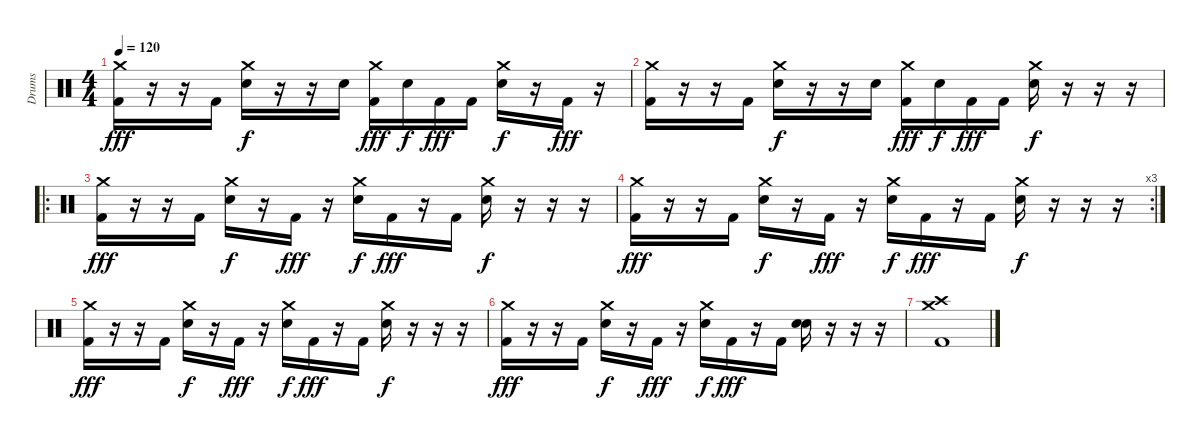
\track ("Drums" "Drums") {instrument percussion}
\staff {score}
\articulation defaults
\ts (4 4)
\tempo 120
\clef neutral
\ks c
("Crash medium (hit)" "Kick (hit) 2").16{dy fff} r.16 r.16 "Kick (hit) 2".16 ("Crash medium (hit)" "Snare (hit) 2").16{dy f} r.16 r.16 "Snare (hit) 2".16 ("Crash medium (hit)" "Kick (hit) 2").16{dy fff} "Snare (hit) 2".16{dy f} "Kick (hit) 2".16{dy fff} "Kick (hit) 2".16 ("Crash medium (hit)" "Snare (hit) 2").16{dy f} r.16 "Kick (hit) 2".16{dy fff} r.16 |
("Crash medium (hit)" "Kick (hit) 2").16 r.16 r.16 "Kick (hit) 2".16 ("Crash medium (hit)" "Snare (hit) 2").16{dy f} r.16 r.16 "Snare (hit) 2".16 ("Crash medium (hit)" "Kick (hit) 2").16{dy fff} "Snare (hit) 2".16{dy f} "Kick (hit) 2".16{dy fff} "Kick (hit) 2".16 ("Crash medium (hit)" "Snare (hit) 2").16{dy f} r.16 r.16 r.16 |
\ro
("Crash medium (hit)" "Kick (hit) 2").16{dy fff} r.16 r.16 "Kick (hit) 2".16 ("Crash medium (hit)" "Snare (hit) 2").16{dy f} r.16 "Kick (hit) 2".16{dy fff} r.16 ("Crash medium (hit)" "Snare (hit) 2").16{dy f} "Kick (hit) 2".16{dy fff} r.16 "Kick (hit) 2".16 ("Crash medium (hit)" "Snare (hit) 2").16{dy f} r.16 r.16 r.16 |
\rc 3
("Crash medium (hit)" "Kick (hit) 2").16{dy fff} r.16 r.16 "Kick (hit) 2".16 ("Crash medium (hit)" "Snare (hit) 2").16{dy f} r.16 "Kick (hit) 2".16{dy fff} r.16 ("Crash medium (hit)" "Snare (hit) 2").16{dy f} "Kick (hit) 2".16{dy fff} r.16 "Kick (hit) 2".16 ("Crash medium (hit)" "Snare (hit) 2").16{dy f} r.16 r.16 r.16 |
("Crash medium (hit)" "Kick (hit) 2").16{dy fff} r.16 r.16 "Kick (hit) 2".16 ("Crash medium (hit)" "Snare (hit) 2").16{dy f} r.16 "Kick (hit) 2".16{dy fff} r.16 ("Crash medium (hit)" "Snare (hit) 2").16{dy f} "Kick (hit) 2".16{dy fff} r.16 "Kick (hit) 2".16 ("Crash medium (hit)" "Snare (hit) 2").16{dy f} r.16 r.16 r.16 |
("Crash medium (hit)" "Kick (hit) 2").16{dy fff} r.16 r.16 "Kick (hit) 2".16 ("Crash medium (hit)" "Snare (hit) 2").16{dy f} r.16 "Kick (hit) 2".16{dy fff} r.16 ("Crash medium (hit)" "Snare (hit) 2").16{dy f} "Kick (hit) 2".16{dy fff} r.16 "Kick (hit) 2".16 ("Electric Snare (hit)" "Snare (hit) 2").16 r.16 r.16 r.16 |
("Crash medium (hit)" "Crash high (hit)" "Kick (hit) 2").1
